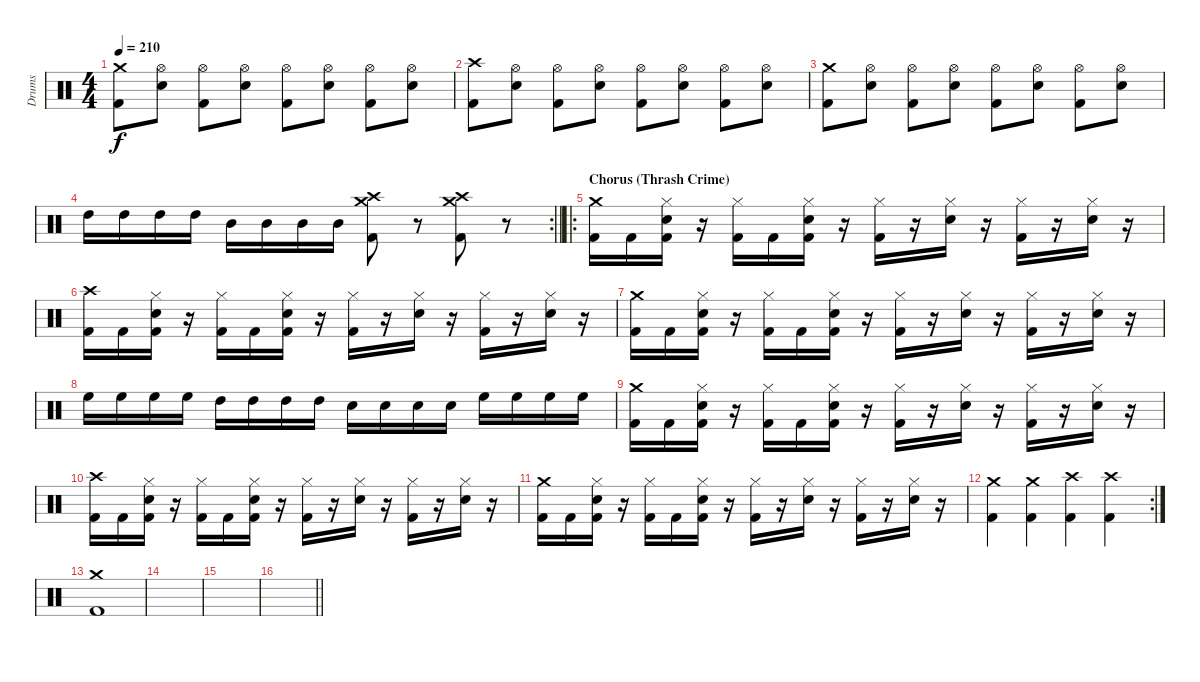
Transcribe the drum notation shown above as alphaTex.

\track ("Drums" "Drums") {instrument percussion}
\staff {score}
\articulation defaults
\ts (4 4)
\tempo 210
\clef neutral
\ks c
("Crash medium (hit)" "Kick (hit) 2").8{dy f} ("Hi-Hat (open)" "Electric Snare (hit)").8 ("Hi-Hat (open)" "Kick (hit) 2").8 ("Hi-Hat (open)" "Electric Snare (hit)").8 ("Hi-Hat (open)" "Kick (hit) 2").8 ("Hi-Hat (open)" "Electric Snare (hit)").8 ("Hi-Hat (open)" "Kick (hit) 2").8 ("Hi-Hat (open)" "Electric Snare (hit)").8 |
("Crash high (hit)" "Kick (hit) 2").8 ("Hi-Hat (open)" "Electric Snare (hit)").8 ("Hi-Hat (open)" "Kick (hit) 2").8 ("Hi-Hat (open)" "Electric Snare (hit)").8 ("Hi-Hat (open)" "Kick (hit) 2").8 ("Hi-Hat (open)" "Electric Snare (hit)").8 ("Hi-Hat (open)" "Kick (hit) 2").8 ("Hi-Hat (open)" "Electric Snare (hit)").8 |
("Crash medium (hit)" "Kick (hit) 2").8 ("Hi-Hat (open)" "Electric Snare (hit)").8 ("Hi-Hat (open)" "Kick (hit) 2").8 ("Hi-Hat (open)" "Electric Snare (hit)").8 ("Hi-Hat (open)" "Kick (hit) 2").8 ("Hi-Hat (open)" "Electric Snare (hit)").8 ("Hi-Hat (open)" "Kick (hit) 2").8 ("Hi-Hat (open)" "Electric Snare (hit)").8 |
\rc 2
\barLineRight lightlight "High Tom (hit)".16 "High Tom (hit)".16 "High Tom (hit)".16 "High Tom (hit)".16 "Mid Tom (hit)".16 "Mid Tom (hit)".16 "Mid Tom (hit)".16 "Mid Tom (hit)".16
("Crash medium (hit)" "Crash high (hit)" "Kick (hit) 2").8 r.8 ("Crash medium (hit)" "Crash high (hit)" "Kick (hit) 2").8 r.8 |
\ro
\section ("" "Chorus (Thrash Crime)")
("Crash medium (hit)" "Kick (hit) 2").16 "Kick (hit) 2".16 ("Hi-Hat (closed)" "Electric Snare (hit)" "Kick (hit) 2").16 r.16 ("Hi-Hat (closed)" "Kick (hit) 2").16 "Kick (hit) 2".16 ("Hi-Hat (closed)" "Electric Snare (hit)" "Kick (hit) 2").16 r.16 ("Hi-Hat (closed)" "Kick (hit) 2").16 r.16 ("Hi-Hat (closed)" "Electric Snare (hit)").16 r.16 ("Hi-Hat (closed)" "Kick (hit) 2").16 r.16 ("Hi-Hat (closed)" "Electric Snare (hit)").16 r.16 |
("Crash high (hit)" "Kick (hit) 2").16 "Kick (hit) 2".16 ("Hi-Hat (closed)" "Electric Snare (hit)" "Kick (hit) 2").16 r.16 ("Hi-Hat (closed)" "Kick (hit) 2").16 "Kick (hit) 2".16 ("Hi-Hat (closed)" "Electric Snare (hit)" "Kick (hit) 2").16 r.16 ("Hi-Hat (closed)" "Kick (hit) 2").16 r.16 ("Hi-Hat (closed)" "Electric Snare (hit)").16 r.16 ("Hi-Hat (closed)" "Kick (hit) 2").16 r.16 ("Hi-Hat (closed)" "Electric Snare (hit)").16 r.16 |
("Crash medium (hit)" "Kick (hit) 2").16 "Kick (hit) 2".16 ("Hi-Hat (closed)" "Electric Snare (hit)" "Kick (hit) 2").16 r.16 ("Hi-Hat (closed)" "Kick (hit) 2").16 "Kick (hit) 2".16 ("Hi-Hat (closed)" "Electric Snare (hit)" "Kick (hit) 2").16 r.16 ("Hi-Hat (closed)" "Kick (hit) 2").16 r.16 ("Hi-Hat (closed)" "Electric Snare (hit)").16 r.16 ("Hi-Hat (closed)" "Kick (hit) 2").16 r.16 ("Hi-Hat (closed)" "Electric Snare (hit)").16 r.16 |
"High Floor Tom (hit)".16 "High Floor Tom (hit)".16 "High Floor Tom (hit)".16 "High Floor Tom (hit)".16 "High Tom (hit)".16 "High Tom (hit)".16 "High Tom (hit)".16 "High Tom (hit)".16 "Electric Snare (hit)".16 "Electric Snare (hit)".16 "Electric Snare (hit)".16 "Electric Snare (hit)".16 "High Floor Tom (hit)".16 "High Floor Tom (hit)".16 "High Floor Tom (hit)".16 "High Floor Tom (hit)".16 |
("Crash medium (hit)" "Kick (hit) 2").16 "Kick (hit) 2".16 ("Hi-Hat (closed)" "Electric Snare (hit)" "Kick (hit) 2").16 r.16 ("Hi-Hat (closed)" "Kick (hit) 2").16 "Kick (hit) 2".16 ("Hi-Hat (closed)" "Electric Snare (hit)" "Kick (hit) 2").16 r.16 ("Hi-Hat (closed)" "Kick (hit) 2").16 r.16 ("Hi-Hat (closed)" "Electric Snare (hit)").16 r.16 ("Hi-Hat (closed)" "Kick (hit) 2").16 r.16 ("Hi-Hat (closed)" "Electric Snare (hit)").16 r.16 |
("Crash high (hit)" "Kick (hit) 2").16 "Kick (hit) 2".16 ("Hi-Hat (closed)" "Electric Snare (hit)" "Kick (hit) 2").16 r.16 ("Hi-Hat (closed)" "Kick (hit) 2").16 "Kick (hit) 2".16 ("Hi-Hat (closed)" "Electric Snare (hit)" "Kick (hit) 2").16 r.16 ("Hi-Hat (closed)" "Kick (hit) 2").16 r.16 ("Hi-Hat (closed)" "Electric Snare (hit)").16 r.16 ("Hi-Hat (closed)" "Kick (hit) 2").16 r.16 ("Hi-Hat (closed)" "Electric Snare (hit)").16 r.16 |
("Crash medium (hit)" "Kick (hit) 2").16 "Kick (hit) 2".16 ("Hi-Hat (closed)" "Electric Snare (hit)" "Kick (hit) 2").16 r.16 ("Hi-Hat (closed)" "Kick (hit) 2").16 "Kick (hit) 2".16 ("Hi-Hat (closed)" "Electric Snare (hit)" "Kick (hit) 2").16 r.16 ("Hi-Hat (closed)" "Kick (hit) 2").16 r.16 ("Hi-Hat (closed)" "Electric Snare (hit)").16 r.16 ("Hi-Hat (closed)" "Kick (hit) 2").16 r.16 ("Hi-Hat (closed)" "Electric Snare (hit)").16 r.16 |
\rc 2
("Crash medium (hit)" "Kick (hit) 2").4 ("Crash medium (hit)" "Kick (hit) 2").4 ("Crash high (hit)" "Kick (hit) 2").4 ("Crash high (hit)" "Kick (hit) 2").4 |
("Crash medium (hit)" "Kick (hit) 2").1 |
|
|
\barLineRight lightlight
